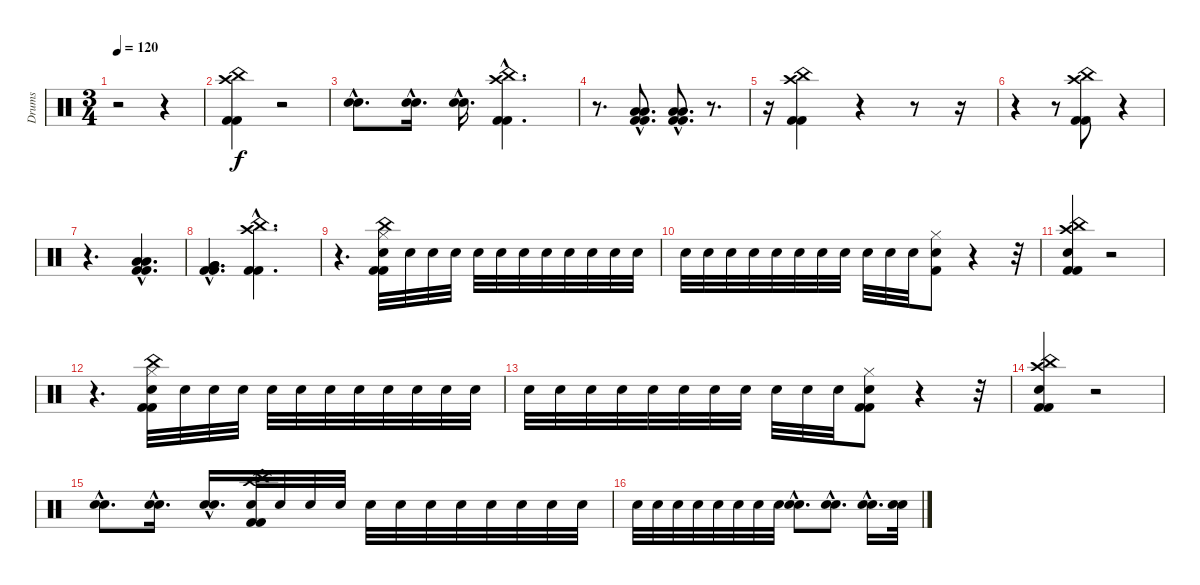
\track ("Drums" "Drums") {instrument percussion}
\staff {score}
\articulation defaults
\ts (3 4)
\tempo 120
\clef neutral
\ks c
r.2{dy f} r.4 |
("Kick (hit) 2" "Crash high (hit)" "China (hit)" "Kick (hit) 2").4 r.2 |
("Snare (hit) 2"{hac} "Electric Snare (hit)"{hac}).8{d} ("Snare (hit) 2"{hac} "Electric Snare (hit)"{hac}).16{d} ("Snare (hit) 2"{hac} "Electric Snare (hit)"{hac}).16{d} ("Kick (hit) 2"{hac} "Crash high (hit)"{hac} "China (hit)"{hac} "Kick (hit) 2"{hac}).4{d} |
r.8{d} ("Low Tom (hit)"{hac} "Low Tom (hit)"{hac} "Kick (hit) 2"{hac} "Kick (hit) 2"{hac}).8{d} ("Low Tom (hit)"{hac} "Low Tom (hit)"{hac} "Kick (hit) 2"{hac} "Kick (hit) 2"{hac}).8{d} r.8{d} |
r.16 ("Kick (hit) 2" "Crash high (hit)" "China (hit)" "Kick (hit) 2").4 r.4 r.8 r.16 |
r.4 r.8 ("Kick (hit) 2" "Crash high (hit)" "China (hit)" "Kick (hit) 2").8 r.4 |
r.4{d} ("Low Tom (hit)"{hac} "Low Tom (hit)"{hac} "Kick (hit) 2"{hac} "Kick (hit) 2"{hac}).4{d} |
("Very Low Tom (hit)"{hac} "Very Low Tom (hit)"{hac} "Kick (hit) 2"{hac} "Kick (hit) 2"{hac}).4{d} ("Kick (hit) 2"{hac} "Crash high (hit)"{hac} "China (hit)"{hac} "Kick (hit) 2"{hac}).4{d} |
r.4{d} ("Kick (hit) 2" "Snare (hit) 2" "China (hit)" "Hi-Hat (closed)" "Kick (hit) 2").32 "Snare (hit) 2".32 "Snare (hit) 2".32 "Snare (hit) 2".32 "Snare (hit) 2".32 "Snare (hit) 2".32 "Snare (hit) 2".32 "Snare (hit) 2".32 "Snare (hit) 2".32 "Snare (hit) 2".32 "Snare (hit) 2".32 "Snare (hit) 2".32 |
"Snare (hit) 2".32 "Snare (hit) 2".32 "Snare (hit) 2".32 "Snare (hit) 2".32 "Snare (hit) 2".32 "Snare (hit) 2".32 "Snare (hit) 2".32 "Snare (hit) 2".32 "Snare (hit) 2".32 "Snare (hit) 2".32 "Snare (hit) 2".32 ("Hi-Hat (closed)" "Snare (hit) 2" "Kick (hit) 2").8 r.4 r.32 |
("Kick (hit) 2" "Snare (hit) 2" "Crash high (hit)" "China (hit)" "Kick (hit) 2").4 r.2 |
r.4{d} ("Kick (hit) 2" "Snare (hit) 2" "China (hit)" "Hi-Hat (closed)" "Kick (hit) 2").32 "Snare (hit) 2".32 "Snare (hit) 2".32 "Snare (hit) 2".32 "Snare (hit) 2".32 "Snare (hit) 2".32 "Snare (hit) 2".32 "Snare (hit) 2".32 "Snare (hit) 2".32 "Snare (hit) 2".32 "Snare (hit) 2".32 "Snare (hit) 2".32 |
"Snare (hit) 2".32 "Snare (hit) 2".32 "Snare (hit) 2".32 "Snare (hit) 2".32 "Snare (hit) 2".32 "Snare (hit) 2".32 "Snare (hit) 2".32 "Snare (hit) 2".32 "Snare (hit) 2".32 "Snare (hit) 2".32 "Snare (hit) 2".32 ("Hi-Hat (closed)" "Snare (hit) 2" "Kick (hit) 2" "Kick (hit) 2").8 r.4 r.32 |
("Kick (hit) 2" "Snare (hit) 2" "Crash high (hit)" "China (hit)" "Kick (hit) 2").4 r.2 |
("Snare (hit) 2"{hac} "Electric Snare (hit)"{hac}).8{d} ("Snare (hit) 2"{hac} "Electric Snare (hit)"{hac}).16{d} ("Snare (hit) 2"{hac} "Electric Snare (hit)"{hac}).16{d} ("Kick (hit) 2" "Snare (hit) 2" "Crash high (hit)" "China (hit)" "Kick (hit) 2").32 "Snare (hit) 2".32 "Snare (hit) 2".32 "Snare (hit) 2".32 "Snare (hit) 2".32 "Snare (hit) 2".32 "Snare (hit) 2".32 "Snare (hit) 2".32 "Snare (hit) 2".32 "Snare (hit) 2".32 "Snare (hit) 2".32 "Snare (hit) 2".32 |
"Snare (hit) 2".32 "Snare (hit) 2".32 "Snare (hit) 2".32 "Snare (hit) 2".32 "Snare (hit) 2".32 "Snare (hit) 2".32 "Snare (hit) 2".32 "Snare (hit) 2".32 ("Snare (hit) 2"{hac} "Electric Snare (hit)"{hac}).8{d} ("Snare (hit) 2"{hac} "Electric Snare (hit)"{hac}).8{d} ("Snare (hit) 2"{hac} "Electric Snare (hit)"{hac}).16{d} ("Snare (hit) 2" "Electric Snare (hit)").32
